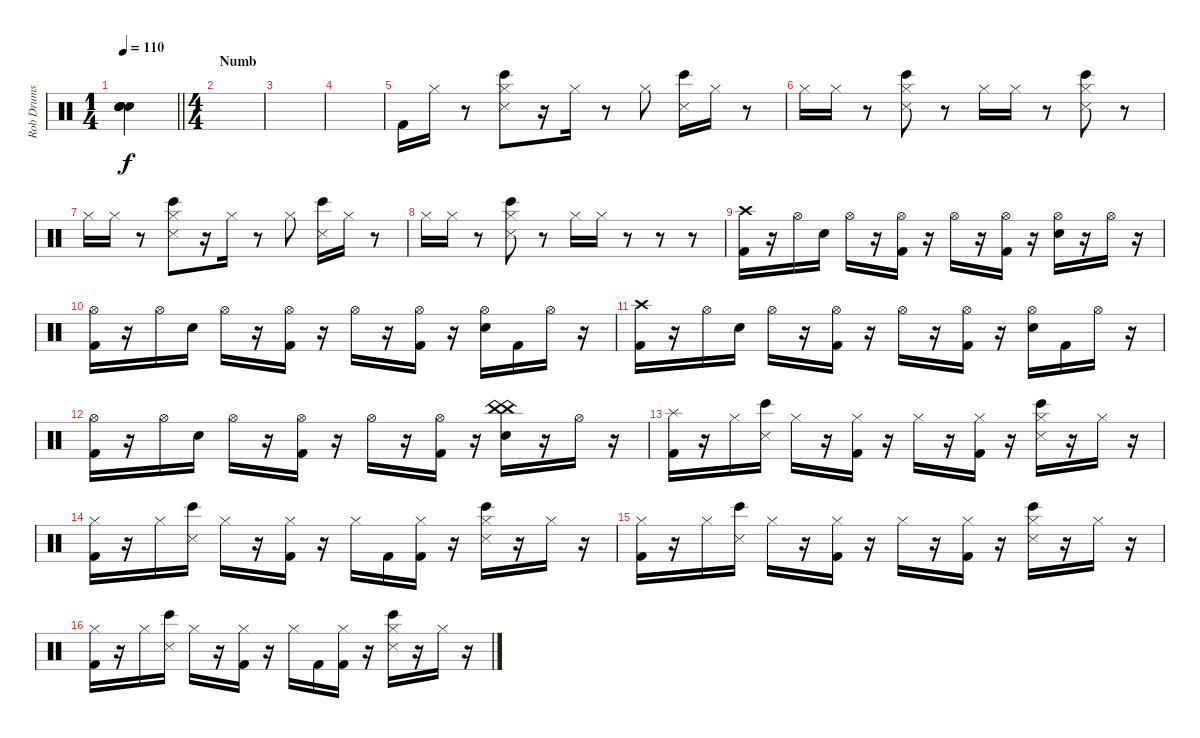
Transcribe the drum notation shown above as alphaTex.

\track ("Rob Drums" "Rob Drums") {instrument percussion}
\staff {score}
\articulation defaults
\ts (1 4)
\tempo 110
\clef neutral
\barLineRight lightlight
\ks c
("Snare (hit)"{t} "Snare (hit)"{t} "Snare (hit)"{t} "Snare (hit)"{t}).4{dy f} |
\ts (4 4)
\section ("" "Numb")
|
|
|
"Kick (hit) 2".16 "Hi-Hat (closed)".16 r.8 ("Hi-Hat (closed)" "Snare (side stick) 3" "Bongo High (hit)").8 r.16 "Hi-Hat (closed)".16 r.8 "Hi-Hat (closed)".8 ("Snare (side stick) 3" "Bongo High (hit)").16 "Hi-Hat (closed)".16 r.8 |
"Hi-Hat (closed)".16 "Hi-Hat (closed)".16 r.8 ("Hi-Hat (closed)" "Snare (side stick) 3" "Bongo High (hit)").8 r.8 "Hi-Hat (closed)".16 "Hi-Hat (closed)".16 r.8 ("Hi-Hat (closed)" "Snare (side stick) 3" "Bongo High (hit)").8 r.8 |
"Hi-Hat (closed)".16 "Hi-Hat (closed)".16 r.8 ("Hi-Hat (closed)" "Snare (side stick) 3" "Bongo High (hit)").8 r.16 "Hi-Hat (closed)".16 r.8 "Hi-Hat (closed)".8 ("Snare (side stick) 3" "Bongo High (hit)").16 "Hi-Hat (closed)".16 r.8 |
"Hi-Hat (closed)".16 "Hi-Hat (closed)".16 r.8 ("Hi-Hat (closed)" "Snare (side stick) 3" "Bongo High (hit)").8 r.8 "Hi-Hat (closed)".16 "Hi-Hat (closed)".16 r.8 r.8 r.8 |
("Crash high (hit)" "Kick (hit) 2").16 r.16 "Hi-Hat (open)".16 "Electric Snare (hit)".16 "Hi-Hat (open)".16 r.16 ("Hi-Hat (open)" "Kick (hit) 2").16 r.16 "Hi-Hat (open)".16 r.16 ("Hi-Hat (open)" "Kick (hit) 2").16 r.16 ("Hi-Hat (open)" "Electric Snare (hit)").16 r.16 "Hi-Hat (open)".16 r.16 |
("Hi-Hat (open)" "Kick (hit) 2").16 r.16 "Hi-Hat (open)".16 "Electric Snare (hit)".16 "Hi-Hat (open)".16 r.16 ("Hi-Hat (open)" "Kick (hit) 2").16 r.16 "Hi-Hat (open)".16 r.16 ("Hi-Hat (open)" "Kick (hit) 2").16 r.16 ("Hi-Hat (open)" "Electric Snare (hit)").16 "Kick (hit) 2".16 "Hi-Hat (open)".16 r.16 |
("Crash high (hit)" "Kick (hit) 2").16 r.16 "Hi-Hat (open)".16 "Electric Snare (hit)".16 "Hi-Hat (open)".16 r.16 ("Hi-Hat (open)" "Kick (hit) 2").16 r.16 "Hi-Hat (open)".16 r.16 ("Hi-Hat (open)" "Kick (hit) 2").16 r.16 ("Hi-Hat (open)" "Electric Snare (hit)").16 "Kick (hit) 2".16 "Hi-Hat (open)".16 r.16 |
("Hi-Hat (open)" "Kick (hit) 2").16 r.16 "Hi-Hat (open)".16 "Electric Snare (hit)".16 "Hi-Hat (open)".16 r.16 ("Hi-Hat (open)" "Kick (hit) 2").16 r.16 "Hi-Hat (open)".16 r.16 ("Hi-Hat (open)" "Kick (hit) 2").16 r.16 ("China (hit)" "China (hit)" "Electric Snare (hit)").16 r.16 "Hi-Hat (open)".16 r.16 |
("Splash (hit)" "Kick (hit) 2").16 r.16 "Hi-Hat (closed)".16 ("Snare (side stick) 3" "Bongo High (hit)").16 "Hi-Hat (closed)".16 r.16 ("Hi-Hat (closed)" "Kick (hit) 2").16 r.16 "Hi-Hat (closed)".16 r.16 ("Hi-Hat (closed)" "Kick (hit) 2").16 r.16 ("Hi-Hat (closed)" "Snare (side stick) 3" "Bongo High (hit)").16 r.16 "Hi-Hat (closed)".16 r.16 |
("Hi-Hat (closed)" "Kick (hit) 2").16 r.16 "Hi-Hat (closed)".16 ("Snare (side stick) 3" "Bongo High (hit)").16 "Hi-Hat (closed)".16 r.16 ("Hi-Hat (closed)" "Kick (hit) 2").16 r.16 "Hi-Hat (closed)".16 "Kick (hit) 2".16 ("Hi-Hat (closed)" "Kick (hit) 2").16 r.16 ("Hi-Hat (closed)" "Snare (side stick) 3" "Bongo High (hit)").16 r.16 "Hi-Hat (closed)".16 r.16 |
("Hi-Hat (closed)" "Kick (hit) 2").16 r.16 "Hi-Hat (closed)".16 ("Snare (side stick) 3" "Bongo High (hit)").16 "Hi-Hat (closed)".16 r.16 ("Hi-Hat (closed)" "Kick (hit) 2").16 r.16 "Hi-Hat (closed)".16 r.16 ("Hi-Hat (closed)" "Kick (hit) 2").16 r.16 ("Hi-Hat (closed)" "Snare (side stick) 3" "Bongo High (hit)").16 r.16 "Hi-Hat (closed)".16 r.16 |
("Hi-Hat (closed)" "Kick (hit) 2").16 r.16 "Hi-Hat (closed)".16 ("Snare (side stick) 3" "Bongo High (hit)").16 "Hi-Hat (closed)".16 r.16 ("Hi-Hat (closed)" "Kick (hit) 2").16 r.16 "Hi-Hat (closed)".16 "Kick (hit) 2".16 ("Hi-Hat (closed)" "Kick (hit) 2").16 r.16 ("Hi-Hat (closed)" "Snare (side stick) 3" "Bongo High (hit)").16 r.16 "Hi-Hat (closed)".16 r.16
